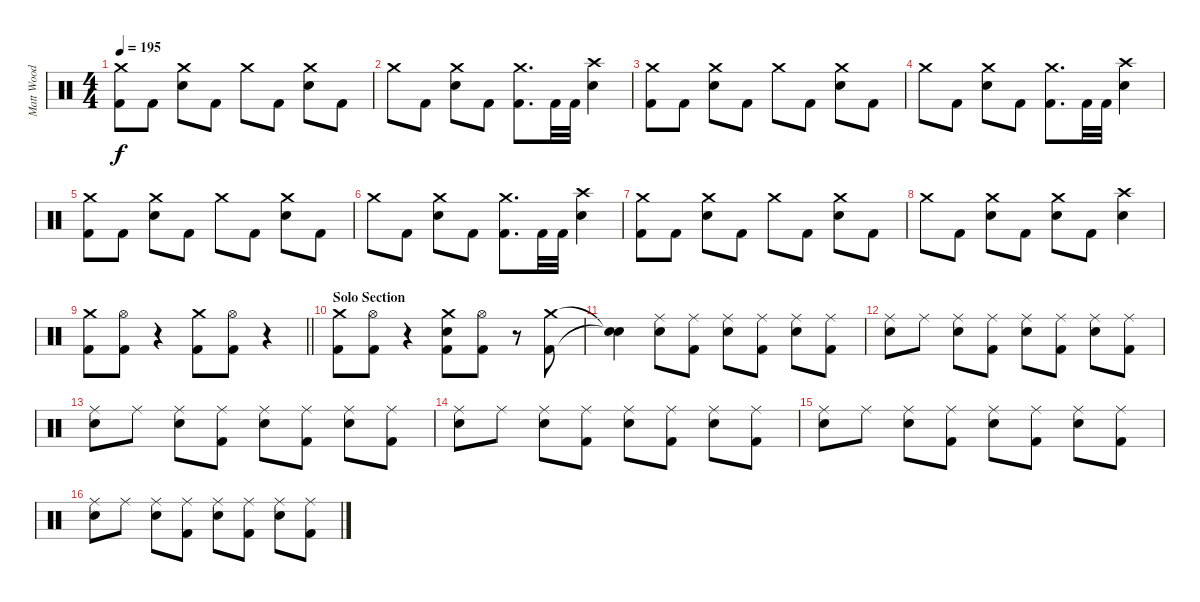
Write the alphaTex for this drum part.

\track ("Matt Wood" "Matt Wood") {instrument percussion}
\staff {score}
\articulation defaults
\ts (4 4)
\tempo 195
\clef neutral
\ks c
("Crash medium (hit)" "Kick (hit) 2").8{dy f} "Kick (hit) 2".8 ("Crash medium (hit)" "Snare (hit) 2").8 "Kick (hit) 2".8 "Crash medium (hit)".8 "Kick (hit) 2".8 ("Crash medium (hit)" "Snare (hit) 2").8 "Kick (hit) 2".8 |
"Crash medium (hit)".8 "Kick (hit) 2".8 ("Crash medium (hit)" "Snare (hit) 2").8 "Kick (hit) 2".8 ("Crash medium (hit)" "Kick (hit) 2").8{d} "Kick (hit) 2".32 "Kick (hit) 2".32 ("Crash high (hit)" "Snare (hit) 2").4 |
("Crash medium (hit)" "Kick (hit) 2").8 "Kick (hit) 2".8 ("Crash medium (hit)" "Snare (hit) 2").8 "Kick (hit) 2".8 "Crash medium (hit)".8 "Kick (hit) 2".8 ("Crash medium (hit)" "Snare (hit) 2").8 "Kick (hit) 2".8 |
"Crash medium (hit)".8 "Kick (hit) 2".8 ("Crash medium (hit)" "Snare (hit) 2").8 "Kick (hit) 2".8 ("Crash medium (hit)" "Kick (hit) 2").8{d} "Kick (hit) 2".32 "Kick (hit) 2".32 ("Crash high (hit)" "Snare (hit) 2").4 |
("Crash medium (hit)" "Kick (hit) 2").8 "Kick (hit) 2".8 ("Crash medium (hit)" "Snare (hit) 2").8 "Kick (hit) 2".8 "Crash medium (hit)".8 "Kick (hit) 2".8 ("Crash medium (hit)" "Snare (hit) 2").8 "Kick (hit) 2".8 |
"Crash medium (hit)".8 "Kick (hit) 2".8 ("Crash medium (hit)" "Snare (hit) 2").8 "Kick (hit) 2".8 ("Crash medium (hit)" "Kick (hit) 2").8{d} "Kick (hit) 2".32 "Kick (hit) 2".32 ("Crash high (hit)" "Snare (hit) 2").4 |
("Crash medium (hit)" "Kick (hit) 2").8 "Kick (hit) 2".8 ("Crash medium (hit)" "Snare (hit) 2").8 "Kick (hit) 2".8 "Crash medium (hit)".8 "Kick (hit) 2".8 ("Crash medium (hit)" "Snare (hit) 2").8 "Kick (hit) 2".8 |
"Crash medium (hit)".8 "Kick (hit) 2".8 ("Crash medium (hit)" "Snare (hit) 2").8 "Kick (hit) 2".8 ("Crash medium (hit)" "Snare (hit) 2").8 "Kick (hit) 2".8 ("Crash high (hit)" "Snare (hit) 2").4 |
\barLineRight lightlight
("Crash medium (hit)" "Kick (hit) 2").8 ("Hi-Hat (open)" "Kick (hit) 2").8 r.4 ("Crash medium (hit)" "Kick (hit) 2").8 ("Hi-Hat (open)" "Kick (hit) 2").8 r.4 |
\section ("" "Solo Section")
("Crash medium (hit)" "Kick (hit) 2").8 ("Hi-Hat (open)" "Kick (hit) 2").8 r.4 ("Crash medium (hit)" "Snare (hit) 2" "Kick (hit) 2").8 ("Hi-Hat (open)" "Kick (hit) 2").8 r.8 ("Crash medium (hit)" "Kick (hit) 2").8 |
("Snare (hit)"{t} "Snare (hit)"{t}).4 ("Ride (middle)" "Snare (hit) 2").8 ("Ride (middle)" "Kick (hit) 2").8 ("Ride (middle)" "Snare (hit) 2").8 ("Ride (middle)" "Kick (hit) 2").8 ("Ride (middle)" "Snare (hit) 2").8 ("Ride (middle)" "Kick (hit) 2").8 |
("Ride (middle)" "Snare (hit) 2").8 "Ride (middle)".8 ("Ride (middle)" "Snare (hit) 2").8 ("Ride (middle)" "Kick (hit) 2").8 ("Ride (middle)" "Snare (hit) 2").8 ("Ride (middle)" "Kick (hit) 2").8 ("Ride (middle)" "Snare (hit) 2").8 ("Ride (middle)" "Kick (hit) 2").8 |
("Ride (middle)" "Snare (hit) 2").8 "Ride (middle)".8 ("Ride (middle)" "Snare (hit) 2").8 ("Ride (middle)" "Kick (hit) 2").8 ("Ride (middle)" "Snare (hit) 2").8 ("Ride (middle)" "Kick (hit) 2").8 ("Ride (middle)" "Snare (hit) 2").8 ("Ride (middle)" "Kick (hit) 2").8 |
("Ride (middle)" "Snare (hit) 2").8 "Ride (middle)".8 ("Ride (middle)" "Snare (hit) 2").8 ("Ride (middle)" "Kick (hit) 2").8 ("Ride (middle)" "Snare (hit) 2").8 ("Ride (middle)" "Kick (hit) 2").8 ("Ride (middle)" "Snare (hit) 2").8 ("Ride (middle)" "Kick (hit) 2").8 |
("Ride (middle)" "Snare (hit) 2").8 "Ride (middle)".8 ("Ride (middle)" "Snare (hit) 2").8 ("Ride (middle)" "Kick (hit) 2").8 ("Ride (middle)" "Snare (hit) 2").8 ("Ride (middle)" "Kick (hit) 2").8 ("Ride (middle)" "Snare (hit) 2").8 ("Ride (middle)" "Kick (hit) 2").8 |
("Ride (middle)" "Snare (hit) 2").8 "Ride (middle)".8 ("Ride (middle)" "Snare (hit) 2").8 ("Ride (middle)" "Kick (hit) 2").8 ("Ride (middle)" "Snare (hit) 2").8 ("Ride (middle)" "Kick (hit) 2").8 ("Ride (middle)" "Snare (hit) 2").8 ("Ride (middle)" "Kick (hit) 2").8
